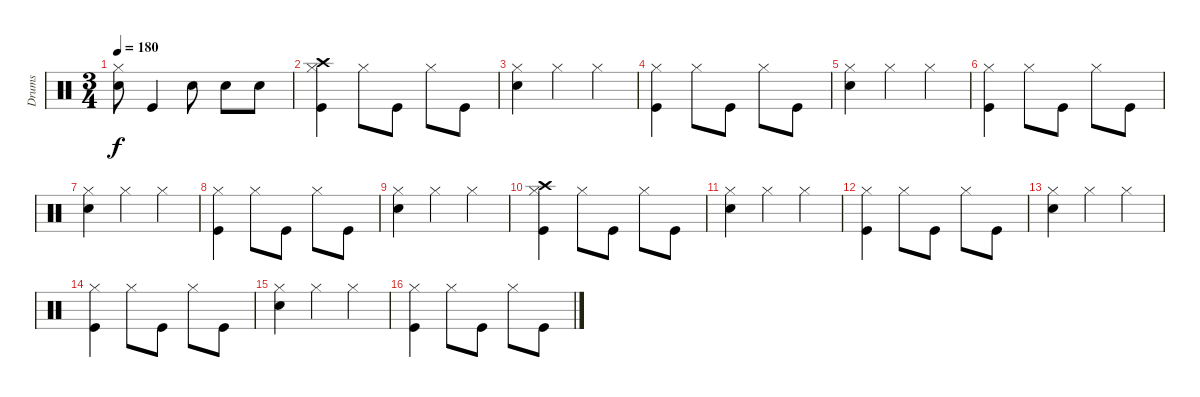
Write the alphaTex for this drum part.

\track ("Drums" "Drums") {instrument percussion}
\staff {score}
\articulation defaults
\ts (3 4)
\tempo 180
\clef neutral
\ks c
("Hi-Hat (closed)" "Electric Snare (hit)").8{dy f} "Kick (hit)".4 "Electric Snare (hit)".8 "Electric Snare (hit)".8 "Electric Snare (hit)".8 |
("Crash high (hit)" "Hi-Hat (closed)" "Kick (hit)").4 "Hi-Hat (closed)".8 "Kick (hit)".8 "Hi-Hat (closed)".8 "Kick (hit)".8 |
("Hi-Hat (closed)" "Electric Snare (hit)").4 "Hi-Hat (closed)".4 "Hi-Hat (closed)".4 |
("Hi-Hat (closed)" "Kick (hit)").4 "Hi-Hat (closed)".8 "Kick (hit)".8 "Hi-Hat (closed)".8 "Kick (hit)".8 |
("Hi-Hat (closed)" "Electric Snare (hit)").4 "Hi-Hat (closed)".4 "Hi-Hat (closed)".4 |
("Hi-Hat (closed)" "Kick (hit)").4 "Hi-Hat (closed)".8 "Kick (hit)".8 "Hi-Hat (closed)".8 "Kick (hit)".8 |
("Hi-Hat (closed)" "Electric Snare (hit)").4 "Hi-Hat (closed)".4 "Hi-Hat (closed)".4 |
("Hi-Hat (closed)" "Kick (hit)").4 "Hi-Hat (closed)".8 "Kick (hit)".8 "Hi-Hat (closed)".8 "Kick (hit)".8 |
("Hi-Hat (closed)" "Electric Snare (hit)").4 "Hi-Hat (closed)".4 "Hi-Hat (closed)".4 |
("Crash high (hit)" "Hi-Hat (closed)" "Kick (hit)").4 "Hi-Hat (closed)".8 "Kick (hit)".8 "Hi-Hat (closed)".8 "Kick (hit)".8 |
("Hi-Hat (closed)" "Electric Snare (hit)").4 "Hi-Hat (closed)".4 "Hi-Hat (closed)".4 |
("Hi-Hat (closed)" "Kick (hit)").4 "Hi-Hat (closed)".8 "Kick (hit)".8 "Hi-Hat (closed)".8 "Kick (hit)".8 |
("Hi-Hat (closed)" "Electric Snare (hit)").4 "Hi-Hat (closed)".4 "Hi-Hat (closed)".4 |
("Hi-Hat (closed)" "Kick (hit)").4 "Hi-Hat (closed)".8 "Kick (hit)".8 "Hi-Hat (closed)".8 "Kick (hit)".8 |
("Hi-Hat (closed)" "Electric Snare (hit)").4 "Hi-Hat (closed)".4 "Hi-Hat (closed)".4 |
("Hi-Hat (closed)" "Kick (hit)").4 "Hi-Hat (closed)".8 "Kick (hit)".8 "Hi-Hat (closed)".8 "Kick (hit)".8
